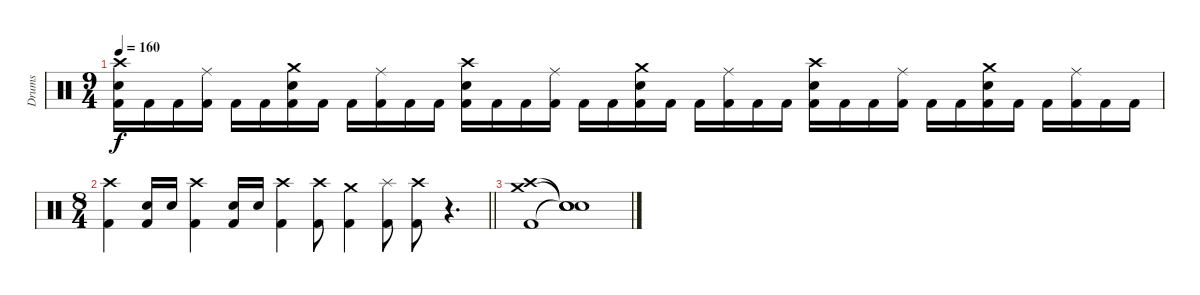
\track ("Drums" "Drums") {instrument percussion}
\staff {score}
\articulation defaults
\ts (9 4)
\tempo 160
\clef neutral
\ks c
("Crash high (hit)" "Snare (hit) 2" "Kick (hit) 2").16{dy f} "Kick (hit) 2".16 "Kick (hit) 2".16 ("Ride (middle)" "Kick (hit) 2").16 "Kick (hit) 2".16 "Kick (hit) 2".16 ("Crash medium (hit)" "Snare (hit) 2" "Kick (hit) 2").16 "Kick (hit) 2".16 "Kick (hit) 2".16 ("Ride (middle)" "Kick (hit) 2").16 "Kick (hit) 2".16 "Kick (hit) 2".16 ("Crash high (hit)" "Snare (hit) 2" "Kick (hit) 2").16 "Kick (hit) 2".16 "Kick (hit) 2".16 ("Ride (middle)" "Kick (hit) 2").16 "Kick (hit) 2".16 "Kick (hit) 2".16 ("Crash medium (hit)" "Snare (hit) 2" "Kick (hit) 2").16 "Kick (hit) 2".16 "Kick (hit) 2".16 ("Ride (middle)" "Kick (hit) 2").16 "Kick (hit) 2".16 "Kick (hit) 2".16 ("Crash high (hit)" "Snare (hit) 2" "Kick (hit) 2").16 "Kick (hit) 2".16 "Kick (hit) 2".16 ("Ride (middle)" "Kick (hit) 2").16 "Kick (hit) 2".16 "Kick (hit) 2".16 ("Crash medium (hit)" "Snare (hit) 2" "Kick (hit) 2").16 "Kick (hit) 2".16 "Kick (hit) 2".16 ("Ride (middle)" "Kick (hit) 2").16 "Kick (hit) 2".16 "Kick (hit) 2".16 |
\ts (8 4)
\barLineRight lightlight
("Crash high (hit)" "Kick (hit) 2").4 ("Snare (hit) 2" "Kick (hit) 2").16 "Snare (hit) 2".16 ("Crash high (hit)" "Kick (hit) 2").4 ("Snare (hit) 2" "Kick (hit) 2").16 "Snare (hit) 2".16 ("Crash high (hit)" "Kick (hit) 2").4 ("Crash high (hit)" "Kick (hit) 2").8 ("Crash medium (hit)" "Kick (hit) 2").4 ("Splash (hit)" "Kick (hit) 2").8 ("Crash high (hit)" "Kick (hit) 2").8 r.4{d} |
("Crash high (hit)" "Crash medium (hit)" "Kick (hit) 2").1 ("Snare (hit)"{t} "Snare (hit)"{t} "Snare (hit)"{t}).1
